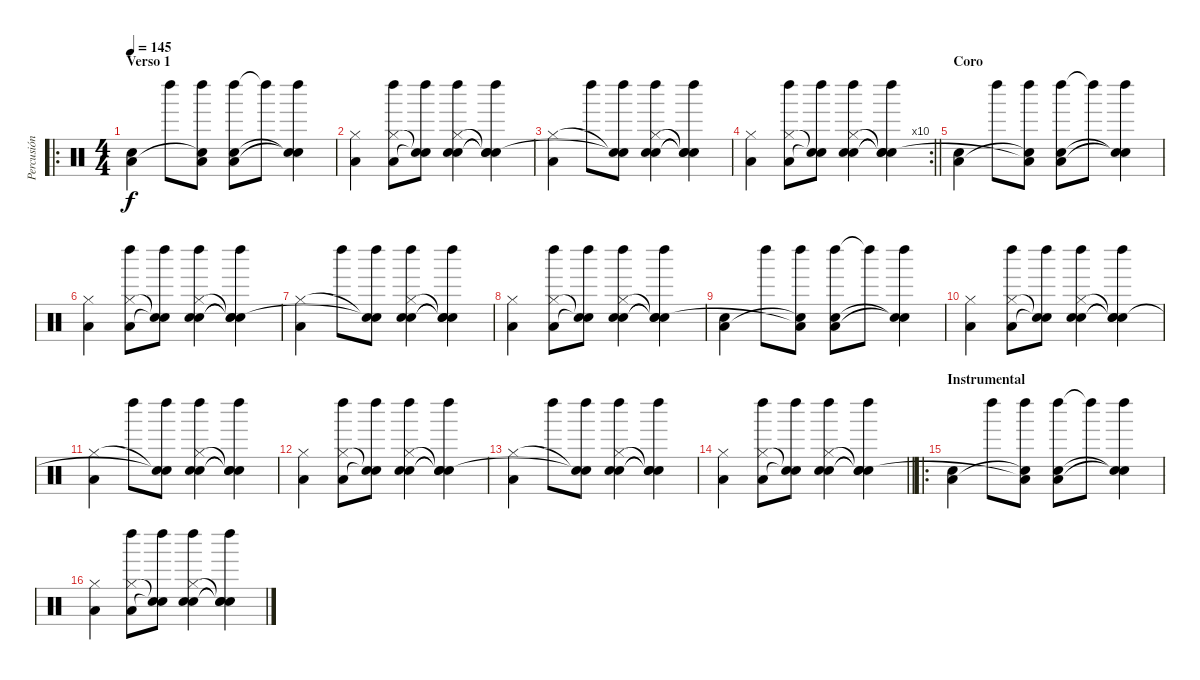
\track ("Percusión" "Percusión") {instrument percussion}
\staff {score}
\articulation defaults
\ro
\ts (4 4)
\section ("" "Verso 1")
\tempo 145
\clef neutral
\ks c
("Snare (hit) 2" "Low Floor Tom (hit)").4{dy f} "Left Maraca (hit)".8 ("Left Maraca (hit)" "Snare (hit)"{t} "Low Floor Tom (hit)").8 ("Left Maraca (hit)" "Snare (hit) 2" "Low Floor Tom (hit)").8 "Left Maraca (hit)"{t}.8 ("Left Maraca (hit)" "Snare (hit)"{t} "Snare (hit)"{t}).4 |
("Low Floor Tom (hit)" "Hi-Hat (closed)").4 ("Left Maraca (hit)" "Low Floor Tom (hit)" "Hi-Hat (closed)").8 ("Left Maraca (hit)" "Snare (hit)"{t} "Snare (hit)"{t}).8 ("Left Maraca (hit)" "Electric Snare (hit)" "Hi-Hat (closed)" "Snare (hit) 2").4 ("Left Maraca (hit)" "Snare (hit)"{t} "Snare (hit)"{t} "Snare (hit)"{t}).4 |
("Low Floor Tom (hit)" "Hi-Hat (closed)").4 "Left Maraca (hit)".8 ("Left Maraca (hit)" "Snare (hit)"{t} "Snare (hit)"{t}).8 ("Left Maraca (hit)" "Electric Snare (hit)" "Hi-Hat (closed)" "Snare (hit) 2").4 ("Left Maraca (hit)" "Snare (hit)"{t} "Snare (hit)"{t} "Snare (hit)"{t}).4 |
\rc 10
\barLineRight lightlight
("Low Floor Tom (hit)" "Hi-Hat (closed)").4 ("Left Maraca (hit)" "Low Floor Tom (hit)" "Hi-Hat (closed)").8 ("Left Maraca (hit)" "Snare (hit)"{t} "Snare (hit)"{t}).8 ("Left Maraca (hit)" "Electric Snare (hit)" "Hi-Hat (closed)" "Snare (hit) 2").4 ("Left Maraca (hit)" "Snare (hit)"{t} "Snare (hit)"{t} "Snare (hit)"{t}).4 |
\section ("" "Coro")
("Snare (hit) 2" "Low Floor Tom (hit)").4 "Left Maraca (hit)".8 ("Left Maraca (hit)" "Snare (hit)"{t} "Low Floor Tom (hit)"{t}).8 ("Left Maraca (hit)" "Snare (hit) 2" "Low Floor Tom (hit)").8 "Left Maraca (hit)"{t}.8 ("Left Maraca (hit)" "Snare (hit)"{t} "Snare (hit)"{t}).4 |
("Low Floor Tom (hit)" "Hi-Hat (closed)").4 ("Left Maraca (hit)" "Low Floor Tom (hit)" "Hi-Hat (closed)").8 ("Left Maraca (hit)" "Snare (hit)"{t} "Snare (hit)"{t}).8 ("Left Maraca (hit)" "Electric Snare (hit)" "Hi-Hat (closed)" "Snare (hit) 2").4 ("Left Maraca (hit)" "Snare (hit)"{t} "Snare (hit)"{t} "Snare (hit)"{t}).4 |
("Low Floor Tom (hit)" "Hi-Hat (closed)").4 "Left Maraca (hit)".8 ("Left Maraca (hit)" "Snare (hit)"{t} "Snare (hit)"{t}).8 ("Left Maraca (hit)" "Electric Snare (hit)" "Hi-Hat (closed)" "Snare (hit) 2").4 ("Left Maraca (hit)" "Snare (hit)"{t} "Snare (hit)"{t} "Snare (hit)"{t}).4 |
("Low Floor Tom (hit)" "Hi-Hat (closed)").4 ("Left Maraca (hit)" "Low Floor Tom (hit)" "Hi-Hat (closed)").8 ("Left Maraca (hit)" "Snare (hit)"{t} "Snare (hit)"{t}).8 ("Left Maraca (hit)" "Electric Snare (hit)" "Hi-Hat (closed)" "Snare (hit) 2").4 ("Left Maraca (hit)" "Snare (hit)"{t} "Snare (hit)"{t} "Snare (hit)"{t}).4 |
("Snare (hit) 2" "Low Floor Tom (hit)").4 "Left Maraca (hit)".8 ("Left Maraca (hit)" "Snare (hit)"{t} "Low Floor Tom (hit)"{t}).8 ("Left Maraca (hit)" "Snare (hit) 2" "Low Floor Tom (hit)").8 "Left Maraca (hit)"{t}.8 ("Left Maraca (hit)" "Snare (hit)"{t} "Snare (hit)"{t}).4 |
("Low Floor Tom (hit)" "Hi-Hat (closed)").4 ("Left Maraca (hit)" "Low Floor Tom (hit)" "Hi-Hat (closed)").8 ("Left Maraca (hit)" "Snare (hit)"{t} "Snare (hit)"{t}).8 ("Left Maraca (hit)" "Electric Snare (hit)" "Hi-Hat (closed)" "Snare (hit) 2").4 ("Left Maraca (hit)" "Snare (hit)"{t} "Snare (hit)"{t} "Snare (hit)"{t}).4 |
("Low Floor Tom (hit)" "Hi-Hat (closed)").4 "Left Maraca (hit)".8 ("Left Maraca (hit)" "Snare (hit)"{t} "Snare (hit)"{t}).8 ("Left Maraca (hit)" "Electric Snare (hit)" "Hi-Hat (closed)" "Snare (hit) 2").4 ("Left Maraca (hit)" "Snare (hit)"{t} "Snare (hit)"{t} "Snare (hit)"{t}).4 |
("Low Floor Tom (hit)" "Hi-Hat (closed)").4 ("Left Maraca (hit)" "Low Floor Tom (hit)" "Hi-Hat (closed)").8 ("Left Maraca (hit)" "Snare (hit)"{t} "Snare (hit)"{t}).8 ("Left Maraca (hit)" "Electric Snare (hit)" "Hi-Hat (closed)" "Snare (hit) 2").4 ("Left Maraca (hit)" "Snare (hit)"{t} "Snare (hit)"{t} "Snare (hit)"{t}).4 |
("Low Floor Tom (hit)" "Hi-Hat (closed)").4 "Left Maraca (hit)".8 ("Left Maraca (hit)" "Snare (hit)"{t} "Snare (hit)"{t}).8 ("Left Maraca (hit)" "Electric Snare (hit)" "Hi-Hat (closed)" "Snare (hit) 2").4 ("Left Maraca (hit)" "Snare (hit)"{t} "Snare (hit)"{t} "Snare (hit)"{t}).4 |
\barLineRight lightlight
("Low Floor Tom (hit)" "Hi-Hat (closed)").4 ("Left Maraca (hit)" "Low Floor Tom (hit)" "Hi-Hat (closed)").8 ("Left Maraca (hit)" "Snare (hit)"{t} "Snare (hit)"{t}).8 ("Left Maraca (hit)" "Electric Snare (hit)" "Hi-Hat (closed)" "Snare (hit) 2").4 ("Left Maraca (hit)" "Snare (hit)"{t} "Snare (hit)"{t} "Snare (hit)"{t}).4 |
\ro
\section ("" "Instrumental")
("Snare (hit) 2" "Low Floor Tom (hit)").4 "Left Maraca (hit)".8 ("Left Maraca (hit)" "Snare (hit)"{t} "Low Floor Tom (hit)"{t}).8 ("Left Maraca (hit)" "Snare (hit) 2" "Low Floor Tom (hit)").8 "Left Maraca (hit)"{t}.8 ("Left Maraca (hit)" "Snare (hit)"{t} "Snare (hit)"{t}).4 |
("Low Floor Tom (hit)" "Hi-Hat (closed)").4 ("Left Maraca (hit)" "Low Floor Tom (hit)" "Hi-Hat (closed)").8 ("Left Maraca (hit)" "Snare (hit)"{t} "Snare (hit)"{t}).8 ("Left Maraca (hit)" "Electric Snare (hit)" "Hi-Hat (closed)" "Snare (hit) 2").4 ("Left Maraca (hit)" "Snare (hit)"{t} "Snare (hit)"{t} "Snare (hit)"{t}).4
